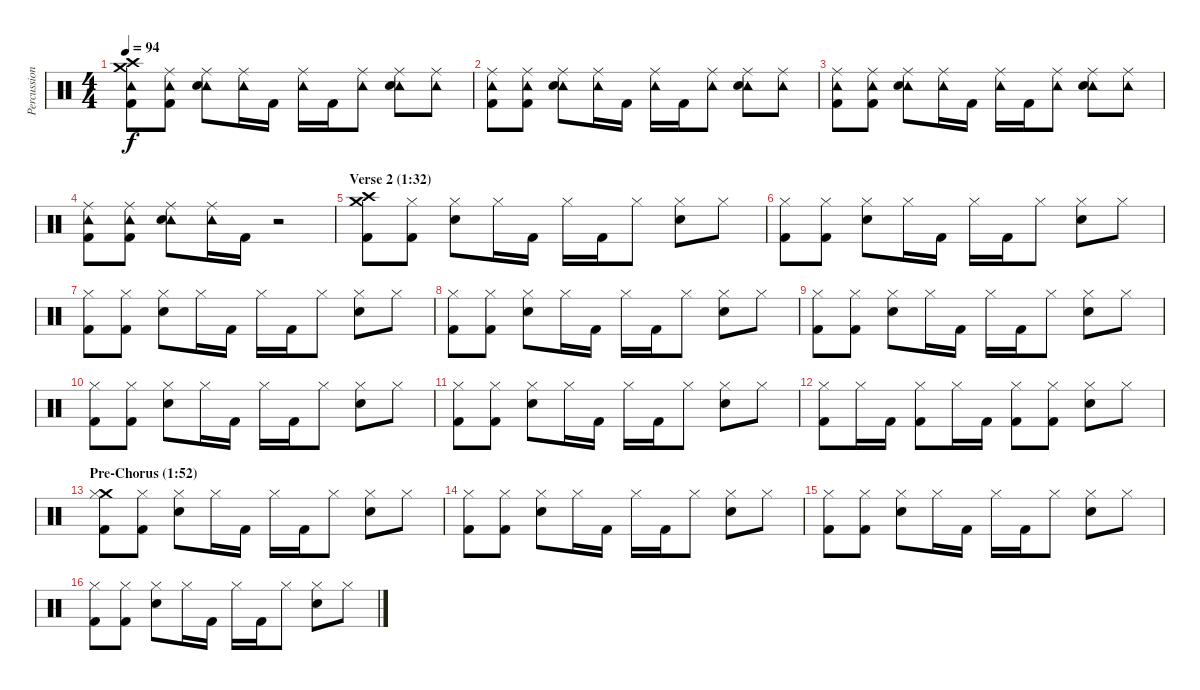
\track ("Percussion" "Percussion") {instrument percussion}
\staff {score}
\articulation defaults
\ts (4 4)
\tempo 94
\clef neutral
\ks c
("Crash high (hit)" "Crash medium (hit)" "Tambourine (hit)" "Kick (hit) 2").8{dy f} ("Ride (middle)" "Tambourine (hit)" "Kick (hit) 2").8 ("Ride (middle)" "Tambourine (hit)" "Snare (hit) 2").8 ("Ride (middle)" "Tambourine (hit)").16 "Kick (hit) 2".16 ("Ride (middle)" "Tambourine (hit)").16 "Kick (hit) 2".16 ("Ride (middle)" "Tambourine (hit)").8 ("Ride (middle)" "Tambourine (hit)" "Snare (hit) 2").8 ("Ride (middle)" "Tambourine (hit)").8 |
("Ride (middle)" "Tambourine (hit)" "Kick (hit) 2").8 ("Ride (middle)" "Tambourine (hit)" "Kick (hit) 2").8 ("Ride (middle)" "Tambourine (hit)" "Snare (hit) 2").8 ("Ride (middle)" "Tambourine (hit)").16 "Kick (hit) 2".16 ("Ride (middle)" "Tambourine (hit)").16 "Kick (hit) 2".16 ("Ride (middle)" "Tambourine (hit)").8 ("Ride (middle)" "Tambourine (hit)" "Snare (hit) 2").8 ("Ride (middle)" "Tambourine (hit)").8 |
("Ride (middle)" "Tambourine (hit)" "Kick (hit) 2").8 ("Ride (middle)" "Tambourine (hit)" "Kick (hit) 2").8 ("Ride (middle)" "Tambourine (hit)" "Snare (hit) 2").8 ("Ride (middle)" "Tambourine (hit)").16 "Kick (hit) 2".16 ("Ride (middle)" "Tambourine (hit)").16 "Kick (hit) 2".16 ("Ride (middle)" "Tambourine (hit)").8 ("Ride (middle)" "Tambourine (hit)" "Snare (hit) 2").8 ("Ride (middle)" "Tambourine (hit)").8 |
("Ride (middle)" "Tambourine (hit)" "Kick (hit) 2").8 ("Ride (middle)" "Tambourine (hit)" "Kick (hit) 2").8 ("Ride (middle)" "Tambourine (hit)" "Snare (hit) 2").8 ("Ride (middle)" "Tambourine (hit)").16 "Kick (hit) 2".16 r.2 |
\section ("" "Verse 2 (1:32)")
("Crash high (hit)" "Crash medium (hit)" "Kick (hit) 2").8 ("Hi-Hat (closed)" "Kick (hit) 2").8 ("Hi-Hat (closed)" "Snare (hit) 2").8 "Hi-Hat (closed)".16 "Kick (hit) 2".16 "Hi-Hat (closed)".16 "Kick (hit) 2".16 "Hi-Hat (closed)".8 ("Hi-Hat (closed)" "Snare (hit) 2").8 "Hi-Hat (closed)".8 |
("Hi-Hat (closed)" "Kick (hit) 2").8 ("Hi-Hat (closed)" "Kick (hit) 2").8 ("Hi-Hat (closed)" "Snare (hit) 2").8 "Hi-Hat (closed)".16 "Kick (hit) 2".16 "Hi-Hat (closed)".16 "Kick (hit) 2".16 "Hi-Hat (closed)".8 ("Hi-Hat (closed)" "Snare (hit) 2").8 "Hi-Hat (closed)".8 |
("Hi-Hat (closed)" "Kick (hit) 2").8 ("Hi-Hat (closed)" "Kick (hit) 2").8 ("Hi-Hat (closed)" "Snare (hit) 2").8 "Hi-Hat (closed)".16 "Kick (hit) 2".16 "Hi-Hat (closed)".16 "Kick (hit) 2".16 "Hi-Hat (closed)".8 ("Hi-Hat (closed)" "Snare (hit) 2").8 "Hi-Hat (closed)".8 |
("Hi-Hat (closed)" "Kick (hit) 2").8 ("Hi-Hat (closed)" "Kick (hit) 2").8 ("Hi-Hat (closed)" "Snare (hit) 2").8 "Hi-Hat (closed)".16 "Kick (hit) 2".16 "Hi-Hat (closed)".16 "Kick (hit) 2".16 "Hi-Hat (closed)".8 ("Hi-Hat (closed)" "Snare (hit) 2").8 "Hi-Hat (closed)".8 |
("Hi-Hat (closed)" "Kick (hit) 2").8 ("Hi-Hat (closed)" "Kick (hit) 2").8 ("Hi-Hat (closed)" "Snare (hit) 2").8 "Hi-Hat (closed)".16 "Kick (hit) 2".16 "Hi-Hat (closed)".16 "Kick (hit) 2".16 "Hi-Hat (closed)".8 ("Hi-Hat (closed)" "Snare (hit) 2").8 "Hi-Hat (closed)".8 |
("Hi-Hat (closed)" "Kick (hit) 2").8 ("Hi-Hat (closed)" "Kick (hit) 2").8 ("Hi-Hat (closed)" "Snare (hit) 2").8 "Hi-Hat (closed)".16 "Kick (hit) 2".16 "Hi-Hat (closed)".16 "Kick (hit) 2".16 "Hi-Hat (closed)".8 ("Hi-Hat (closed)" "Snare (hit) 2").8 "Hi-Hat (closed)".8 |
("Hi-Hat (closed)" "Kick (hit) 2").8 ("Hi-Hat (closed)" "Kick (hit) 2").8 ("Hi-Hat (closed)" "Snare (hit) 2").8 "Hi-Hat (closed)".16 "Kick (hit) 2".16 "Hi-Hat (closed)".16 "Kick (hit) 2".16 "Hi-Hat (closed)".8 ("Hi-Hat (closed)" "Snare (hit) 2").8 "Hi-Hat (closed)".8 |
("Hi-Hat (closed)" "Kick (hit) 2").8 "Hi-Hat (closed)".16 "Kick (hit) 2".16 ("Hi-Hat (closed)" "Kick (hit) 2").8 "Hi-Hat (closed)".16 "Kick (hit) 2".16 ("Hi-Hat (closed)" "Kick (hit) 2").8 ("Hi-Hat (closed)" "Kick (hit) 2").8 ("Hi-Hat (closed)" "Snare (hit) 2").8 "Hi-Hat (closed)".8 |
\section ("" "Pre-Chorus (1:52)")
("Crash medium (hit)" "Hi-Hat (closed)" "Kick (hit) 2").8 ("Hi-Hat (closed)" "Kick (hit) 2").8 ("Hi-Hat (closed)" "Snare (hit) 2").8 "Hi-Hat (closed)".16 "Kick (hit) 2".16 "Hi-Hat (closed)".16 "Kick (hit) 2".16 "Hi-Hat (closed)".8 ("Hi-Hat (closed)" "Snare (hit) 2").8 "Hi-Hat (closed)".8 |
("Hi-Hat (closed)" "Kick (hit) 2").8 ("Hi-Hat (closed)" "Kick (hit) 2").8 ("Hi-Hat (closed)" "Snare (hit) 2").8 "Hi-Hat (closed)".16 "Kick (hit) 2".16 "Hi-Hat (closed)".16 "Kick (hit) 2".16 "Hi-Hat (closed)".8 ("Hi-Hat (closed)" "Snare (hit) 2").8 "Hi-Hat (closed)".8 |
("Hi-Hat (closed)" "Kick (hit) 2").8 ("Hi-Hat (closed)" "Kick (hit) 2").8 ("Hi-Hat (closed)" "Snare (hit) 2").8 "Hi-Hat (closed)".16 "Kick (hit) 2".16 "Hi-Hat (closed)".16 "Kick (hit) 2".16 "Hi-Hat (closed)".8 ("Hi-Hat (closed)" "Snare (hit) 2").8 "Hi-Hat (closed)".8 |
("Hi-Hat (closed)" "Kick (hit) 2").8 ("Hi-Hat (closed)" "Kick (hit) 2").8 ("Hi-Hat (closed)" "Snare (hit) 2").8 "Hi-Hat (closed)".16 "Kick (hit) 2".16 "Hi-Hat (closed)".16 "Kick (hit) 2".16 "Hi-Hat (closed)".8 ("Hi-Hat (closed)" "Snare (hit) 2").8 "Hi-Hat (closed)".8
